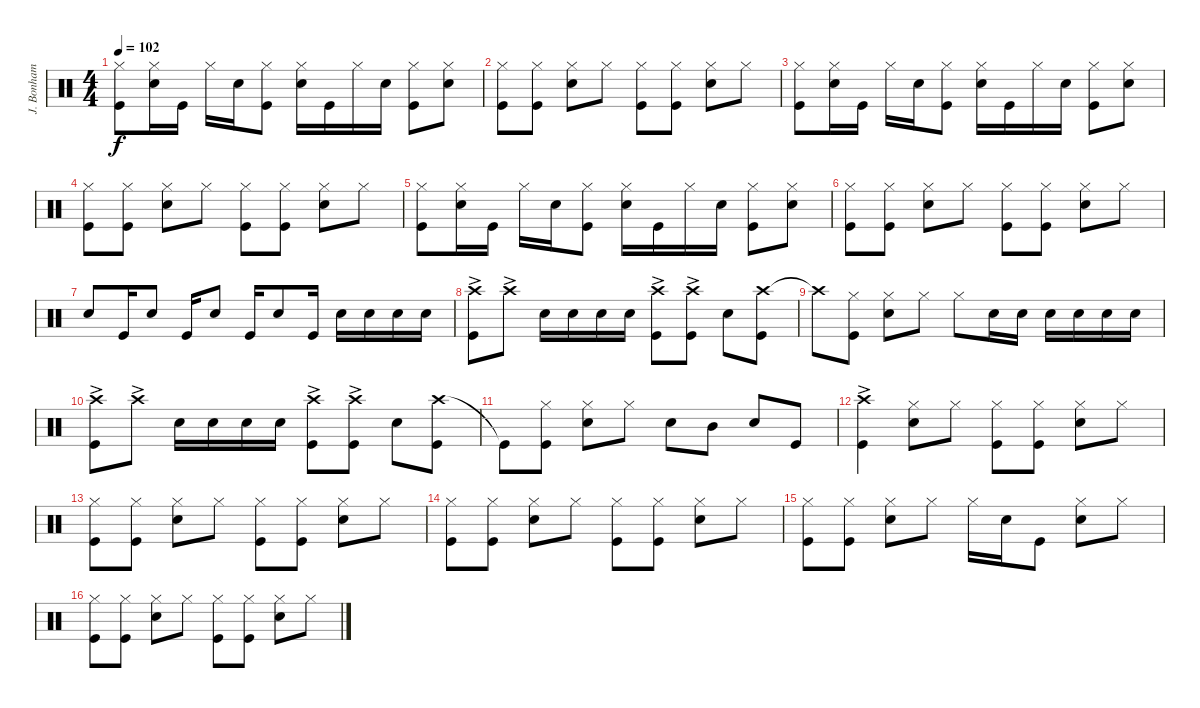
\track ("J. Bonham" "J. Bonham") {instrument percussion}
\staff {score}
\articulation defaults
\ts (4 4)
\tempo 102
\clef neutral
\ks c
("Hi-Hat (closed)" "Kick (hit)").8{dy f} ("Hi-Hat (closed)" "Snare (hit) 2").16 "Kick (hit)".16 "Hi-Hat (closed)".16 "Snare (hit) 2".16 ("Hi-Hat (closed)" "Kick (hit)").8 ("Hi-Hat (closed)" "Snare (hit) 2").16 "Kick (hit)".16 "Hi-Hat (closed)".16 "Snare (hit) 2".16 ("Hi-Hat (closed)" "Kick (hit)").8 ("Hi-Hat (closed)" "Snare (hit) 2").8 |
("Hi-Hat (closed)" "Kick (hit)").8 ("Hi-Hat (closed)" "Kick (hit)").8 ("Hi-Hat (closed)" "Snare (hit) 2").8 "Hi-Hat (closed)".8 ("Hi-Hat (closed)" "Kick (hit)").8 ("Hi-Hat (closed)" "Kick (hit)").8 ("Hi-Hat (closed)" "Snare (hit) 2").8 "Hi-Hat (closed)".8 |
("Hi-Hat (closed)" "Kick (hit)").8 ("Hi-Hat (closed)" "Snare (hit) 2").16 "Kick (hit)".16 "Hi-Hat (closed)".16 "Snare (hit) 2".16 ("Hi-Hat (closed)" "Kick (hit)").8 ("Hi-Hat (closed)" "Snare (hit) 2").16 "Kick (hit)".16 "Hi-Hat (closed)".16 "Snare (hit) 2".16 ("Hi-Hat (closed)" "Kick (hit)").8 ("Hi-Hat (closed)" "Snare (hit) 2").8 |
("Hi-Hat (closed)" "Kick (hit)").8 ("Hi-Hat (closed)" "Kick (hit)").8 ("Hi-Hat (closed)" "Snare (hit) 2").8 "Hi-Hat (closed)".8 ("Hi-Hat (closed)" "Kick (hit)").8 ("Hi-Hat (closed)" "Kick (hit)").8 ("Hi-Hat (closed)" "Snare (hit) 2").8 "Hi-Hat (closed)".8 |
("Hi-Hat (closed)" "Kick (hit)").8 ("Hi-Hat (closed)" "Snare (hit) 2").16 "Kick (hit)".16 "Hi-Hat (closed)".16 "Snare (hit) 2".16 ("Hi-Hat (closed)" "Kick (hit)").8 ("Hi-Hat (closed)" "Snare (hit) 2").16 "Kick (hit)".16 "Hi-Hat (closed)".16 "Snare (hit) 2".16 ("Hi-Hat (closed)" "Kick (hit)").8 ("Hi-Hat (closed)" "Snare (hit) 2").8 |
("Hi-Hat (closed)" "Kick (hit)").8 ("Hi-Hat (closed)" "Kick (hit)").8 ("Hi-Hat (closed)" "Snare (hit) 2").8 "Hi-Hat (closed)".8 ("Hi-Hat (closed)" "Kick (hit)").8 ("Hi-Hat (closed)" "Kick (hit)").8 ("Hi-Hat (closed)" "Snare (hit) 2").8 "Hi-Hat (closed)".8 |
"Snare (hit) 2".8 "Kick (hit)".16 "Snare (hit) 2".8 "Kick (hit)".16 "Snare (hit) 2".8 "Kick (hit)".16 "Snare (hit) 2".8 "Kick (hit)".16 "Snare (hit) 2".16 "Snare (hit) 2".16 "Snare (hit) 2".16 "Snare (hit) 2".16 |
("Crash high (hit)"{ac} "Kick (hit)").8 "Crash high (hit)"{ac}.8 "Snare (hit) 2".16 "Snare (hit) 2".16 "Snare (hit) 2".16 "Snare (hit) 2".16 ("Crash high (hit)"{ac} "Kick (hit)").8 ("Crash high (hit)"{ac} "Kick (hit)").8 "Snare (hit) 2".8 ("Crash high (hit)" "Kick (hit)").8 |
"Crash high (hit)"{t}.8 ("Hi-Hat (closed)" "Kick (hit)").8 ("Hi-Hat (closed)" "Snare (hit) 2").8 "Hi-Hat (closed)".8 "Hi-Hat (closed)".8 "Snare (hit) 2".16 "Snare (hit) 2".16 "Snare (hit) 2".16 "Snare (hit) 2".16 "Snare (hit) 2".16 "Snare (hit) 2".16 |
("Crash high (hit)"{ac} "Kick (hit)").8 "Crash high (hit)"{ac}.8 "Snare (hit) 2".16 "Snare (hit) 2".16 "Snare (hit) 2".16 "Snare (hit) 2".16 ("Crash high (hit)"{ac} "Kick (hit)").8 ("Crash high (hit)"{ac} "Kick (hit)").8 "Snare (hit) 2".8 ("Crash high (hit)" "Kick (hit)").8 |
"Kick (hit)"{t}.8 ("Hi-Hat (closed)" "Kick (hit)").8 ("Hi-Hat (closed)" "Snare (hit) 2").8 "Hi-Hat (closed)".8 "Snare (hit) 2".8 "Mid Tom (hit)".8 "Snare (hit) 2".8 "Kick (hit)".8 |
("Crash high (hit)"{ac} "Kick (hit)").4 ("Hi-Hat (closed)" "Snare (hit) 2").8 "Hi-Hat (closed)".8 ("Hi-Hat (closed)" "Kick (hit)").8 ("Hi-Hat (closed)" "Kick (hit)").8 ("Hi-Hat (closed)" "Snare (hit) 2").8 "Hi-Hat (closed)".8 |
("Hi-Hat (closed)" "Kick (hit)").8 ("Hi-Hat (closed)" "Kick (hit)").8 ("Hi-Hat (closed)" "Snare (hit) 2").8 "Hi-Hat (closed)".8 ("Hi-Hat (closed)" "Kick (hit)").8 ("Hi-Hat (closed)" "Kick (hit)").8 ("Hi-Hat (closed)" "Snare (hit) 2").8 "Hi-Hat (closed)".8 |
("Hi-Hat (closed)" "Kick (hit)").8 ("Hi-Hat (closed)" "Kick (hit)").8 ("Hi-Hat (closed)" "Snare (hit) 2").8 "Hi-Hat (closed)".8 ("Hi-Hat (closed)" "Kick (hit)").8 ("Hi-Hat (closed)" "Kick (hit)").8 ("Hi-Hat (closed)" "Snare (hit) 2").8 "Hi-Hat (closed)".8 |
("Hi-Hat (closed)" "Kick (hit)").8 ("Hi-Hat (closed)" "Kick (hit)").8 ("Hi-Hat (closed)" "Snare (hit) 2").8 "Hi-Hat (closed)".8 "Hi-Hat (closed)".16 "Snare (hit) 2".16 "Kick (hit)".8 ("Hi-Hat (closed)" "Snare (hit) 2").8 "Hi-Hat (closed)".8 |
("Hi-Hat (closed)" "Kick (hit)").8 ("Hi-Hat (closed)" "Kick (hit)").8 ("Hi-Hat (closed)" "Snare (hit) 2").8 "Hi-Hat (closed)".8 ("Hi-Hat (closed)" "Kick (hit)").8 ("Hi-Hat (closed)" "Kick (hit)").8 ("Hi-Hat (closed)" "Snare (hit) 2").8 "Hi-Hat (closed)".8
